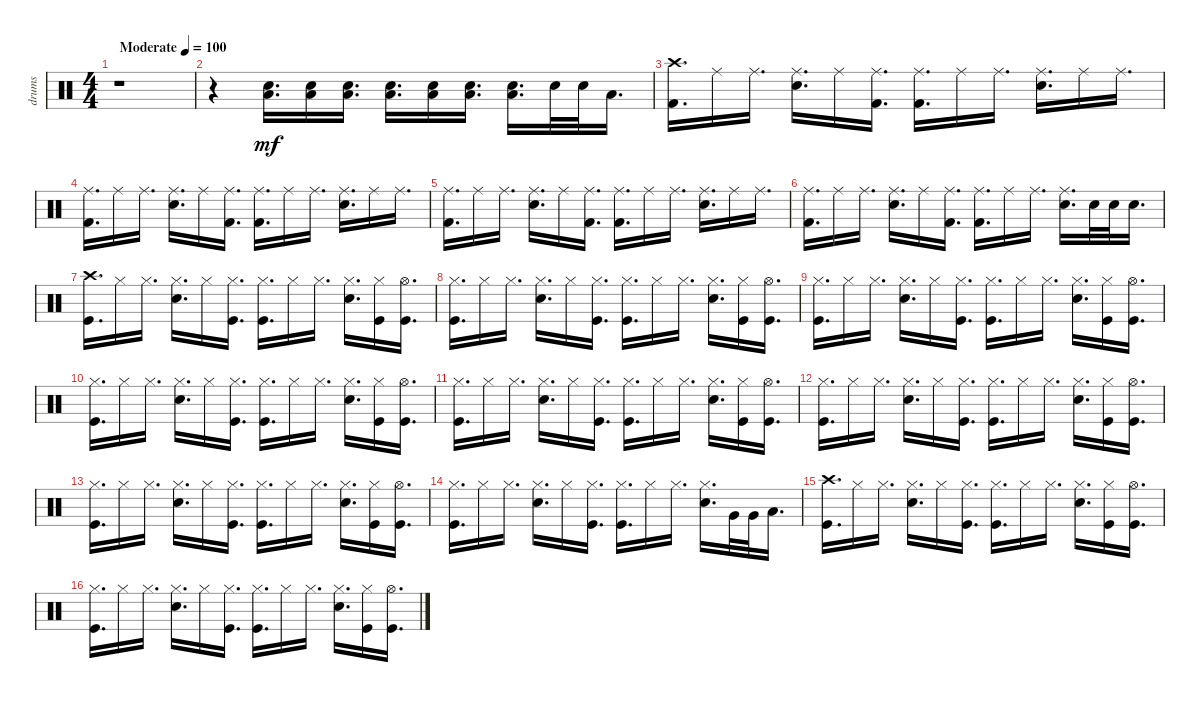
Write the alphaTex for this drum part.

\track ("drums" "drums") {instrument percussion}
\staff {score}
\articulation defaults
\ts (4 4)
\tempo (100 "Moderate")
\clef neutral
\ks c
r.1{dy mf} |
r.4 ("Low Floor Tom (hit)" "Snare (hit) 2").16{d} ("Low Floor Tom (hit)" "Snare (hit) 2").16 ("Low Floor Tom (hit)" "Snare (hit) 2").16{d} ("Low Floor Tom (hit)" "Snare (hit) 2").16{d} ("Low Floor Tom (hit)" "Snare (hit) 2").16 ("Low Floor Tom (hit)" "Snare (hit) 2").16{d} ("Low Floor Tom (hit)" "Snare (hit) 2").16{d} "Snare (hit) 2".32 "Snare (hit) 2".32 "Low Floor Tom (hit)".16{d} |
("Crash high (hit)" "Kick (hit) 2").16{d} "Ride (middle)".16 "Ride (middle)".16{d} ("Ride (middle)" "Snare (hit) 2").16{d} "Ride (middle)".16 ("Ride (middle)" "Kick (hit) 2").16{d} ("Ride (middle)" "Kick (hit) 2").16{d} "Ride (middle)".16 "Ride (middle)".16{d} ("Ride (middle)" "Snare (hit) 2").16{d} "Ride (middle)".16 "Ride (middle)".16{d} |
("Ride (middle)" "Kick (hit) 2").16{d} "Ride (middle)".16 "Ride (middle)".16{d} ("Ride (middle)" "Snare (hit) 2").16{d} "Ride (middle)".16 ("Ride (middle)" "Kick (hit) 2").16{d} ("Ride (middle)" "Kick (hit) 2").16{d} "Ride (middle)".16 "Ride (middle)".16{d} ("Ride (middle)" "Snare (hit) 2").16{d} "Ride (middle)".16 "Ride (middle)".16{d} |
("Ride (middle)" "Kick (hit) 2").16{d} "Ride (middle)".16 "Ride (middle)".16{d} ("Ride (middle)" "Snare (hit) 2").16{d} "Ride (middle)".16 ("Ride (middle)" "Kick (hit) 2").16{d} ("Ride (middle)" "Kick (hit) 2").16{d} "Ride (middle)".16 "Ride (middle)".16{d} ("Ride (middle)" "Snare (hit) 2").16{d} "Ride (middle)".16 "Ride (middle)".16{d} |
("Ride (middle)" "Kick (hit) 2").16{d} "Ride (middle)".16 "Ride (middle)".16{d} ("Ride (middle)" "Snare (hit) 2").16{d} "Ride (middle)".16 ("Ride (middle)" "Kick (hit) 2").16{d} ("Ride (middle)" "Kick (hit) 2").16{d} "Ride (middle)".16 "Ride (middle)".16{d} ("Ride (middle)" "Snare (hit) 2").16{d} "Snare (hit) 2".32 "Snare (hit) 2".32 "Snare (hit) 2".16{d} |
("Crash high (hit)" "Kick (hit)").16{d} "Hi-Hat (closed)".16 "Hi-Hat (closed)".16{d} ("Snare (hit) 2" "Hi-Hat (closed)").16{d} "Hi-Hat (closed)".16 ("Kick (hit)" "Hi-Hat (closed)").16{d} ("Kick (hit)" "Hi-Hat (closed)").16{d} "Hi-Hat (closed)".16 "Hi-Hat (closed)".16{d} ("Snare (hit) 2" "Hi-Hat (closed)").16{d} ("Kick (hit)" "Hi-Hat (closed)").16 ("Hi-Hat (open)" "Kick (hit)").16{d} |
("Hi-Hat (closed)" "Kick (hit)").16{d} "Hi-Hat (closed)".16 "Hi-Hat (closed)".16{d} ("Snare (hit) 2" "Hi-Hat (closed)").16{d} "Hi-Hat (closed)".16 ("Kick (hit)" "Hi-Hat (closed)").16{d} ("Kick (hit)" "Hi-Hat (closed)").16{d} "Hi-Hat (closed)".16 "Hi-Hat (closed)".16{d} ("Snare (hit) 2" "Hi-Hat (closed)").16{d} ("Kick (hit)" "Hi-Hat (closed)").16 ("Hi-Hat (open)" "Kick (hit)").16{d} |
("Hi-Hat (closed)" "Kick (hit)").16{d} "Hi-Hat (closed)".16 "Hi-Hat (closed)".16{d} ("Snare (hit) 2" "Hi-Hat (closed)").16{d} "Hi-Hat (closed)".16 ("Kick (hit)" "Hi-Hat (closed)").16{d} ("Kick (hit)" "Hi-Hat (closed)").16{d} "Hi-Hat (closed)".16 "Hi-Hat (closed)".16{d} ("Snare (hit) 2" "Hi-Hat (closed)").16{d} ("Kick (hit)" "Hi-Hat (closed)").16 ("Hi-Hat (open)" "Kick (hit)").16{d} |
("Hi-Hat (closed)" "Kick (hit)").16{d} "Hi-Hat (closed)".16 "Hi-Hat (closed)".16{d} ("Snare (hit) 2" "Hi-Hat (closed)").16{d} "Hi-Hat (closed)".16 ("Kick (hit)" "Hi-Hat (closed)").16{d} ("Kick (hit)" "Hi-Hat (closed)").16{d} "Hi-Hat (closed)".16 "Hi-Hat (closed)".16{d} ("Snare (hit) 2" "Hi-Hat (closed)").16{d} ("Kick (hit)" "Hi-Hat (closed)").16 ("Hi-Hat (open)" "Kick (hit)").16{d} |
("Hi-Hat (closed)" "Kick (hit)").16{d} "Hi-Hat (closed)".16 "Hi-Hat (closed)".16{d} ("Snare (hit) 2" "Hi-Hat (closed)").16{d} "Hi-Hat (closed)".16 ("Kick (hit)" "Hi-Hat (closed)").16{d} ("Kick (hit)" "Hi-Hat (closed)").16{d} "Hi-Hat (closed)".16 "Hi-Hat (closed)".16{d} ("Snare (hit) 2" "Hi-Hat (closed)").16{d} ("Kick (hit)" "Hi-Hat (closed)").16 ("Hi-Hat (open)" "Kick (hit)").16{d} |
("Hi-Hat (closed)" "Kick (hit)").16{d} "Hi-Hat (closed)".16 "Hi-Hat (closed)".16{d} ("Snare (hit) 2" "Hi-Hat (closed)").16{d} "Hi-Hat (closed)".16 ("Kick (hit)" "Hi-Hat (closed)").16{d} ("Kick (hit)" "Hi-Hat (closed)").16{d} "Hi-Hat (closed)".16 "Hi-Hat (closed)".16{d} ("Snare (hit) 2" "Hi-Hat (closed)").16{d} ("Kick (hit)" "Hi-Hat (closed)").16 ("Hi-Hat (open)" "Kick (hit)").16{d} |
("Hi-Hat (closed)" "Kick (hit)").16{d} "Hi-Hat (closed)".16 "Hi-Hat (closed)".16{d} ("Snare (hit) 2" "Hi-Hat (closed)").16{d} "Hi-Hat (closed)".16 ("Kick (hit)" "Hi-Hat (closed)").16{d} ("Kick (hit)" "Hi-Hat (closed)").16{d} "Hi-Hat (closed)".16 "Hi-Hat (closed)".16{d} ("Snare (hit) 2" "Hi-Hat (closed)").16{d} ("Kick (hit)" "Hi-Hat (closed)").16 ("Hi-Hat (open)" "Kick (hit)").16{d} |
("Hi-Hat (closed)" "Kick (hit)").16{d} "Hi-Hat (closed)".16 "Hi-Hat (closed)".16{d} ("Snare (hit) 2" "Hi-Hat (closed)").16{d} "Hi-Hat (closed)".16 ("Kick (hit)" "Hi-Hat (closed)").16{d} ("Kick (hit)" "Hi-Hat (closed)").16{d} "Hi-Hat (closed)".16 "Hi-Hat (closed)".16{d} ("Snare (hit) 2" "Hi-Hat (closed)").16{d} "Very Low Tom (hit)".32 "Very Low Tom (hit)".32 "Low Floor Tom (hit)".16{d} |
("Crash high (hit)" "Kick (hit)").16{d} "Hi-Hat (closed)".16 "Hi-Hat (closed)".16{d} ("Snare (hit) 2" "Hi-Hat (closed)").16{d} "Hi-Hat (closed)".16 ("Kick (hit)" "Hi-Hat (closed)").16{d} ("Kick (hit)" "Hi-Hat (closed)").16{d} "Hi-Hat (closed)".16 "Hi-Hat (closed)".16{d} ("Snare (hit) 2" "Hi-Hat (closed)").16{d} ("Kick (hit)" "Hi-Hat (closed)").16 ("Hi-Hat (open)" "Kick (hit)").16{d} |
("Hi-Hat (closed)" "Kick (hit)").16{d} "Hi-Hat (closed)".16 "Hi-Hat (closed)".16{d} ("Snare (hit) 2" "Hi-Hat (closed)").16{d} "Hi-Hat (closed)".16 ("Kick (hit)" "Hi-Hat (closed)").16{d} ("Kick (hit)" "Hi-Hat (closed)").16{d} "Hi-Hat (closed)".16 "Hi-Hat (closed)".16{d} ("Snare (hit) 2" "Hi-Hat (closed)").16{d} ("Kick (hit)" "Hi-Hat (closed)").16 ("Hi-Hat (open)" "Kick (hit)").16{d}
